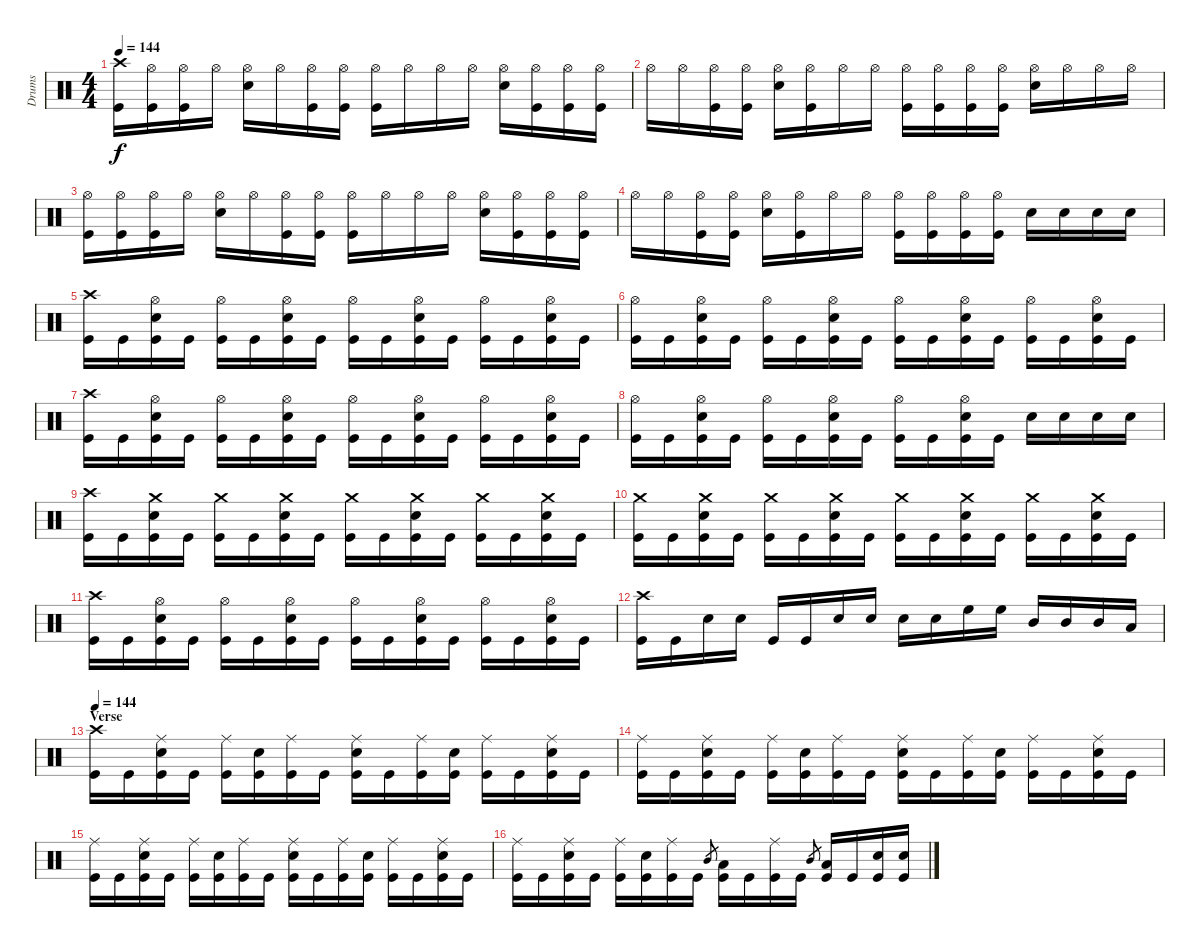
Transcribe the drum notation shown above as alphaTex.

\track ("Drums" "Drums") {instrument percussion}
\staff {score}
\articulation defaults
\ts (4 4)
\tempo 144
\clef neutral
\ks c
("Crash high (hit)" "Kick (hit)").16{dy f} ("Hi-Hat (open)" "Kick (hit)").16 ("Hi-Hat (open)" "Kick (hit)").16 "Hi-Hat (open)".16 ("Hi-Hat (open)" "Electric Snare (hit)").16 "Hi-Hat (open)".16 ("Hi-Hat (open)" "Kick (hit)").16 ("Hi-Hat (open)" "Kick (hit)").16 ("Hi-Hat (open)" "Kick (hit)").16 "Hi-Hat (open)".16 "Hi-Hat (open)".16 "Hi-Hat (open)".16 ("Hi-Hat (open)" "Electric Snare (hit)").16 ("Hi-Hat (open)" "Kick (hit)").16 ("Hi-Hat (open)" "Kick (hit)").16 ("Hi-Hat (open)" "Kick (hit)").16 |
"Hi-Hat (open)".16 "Hi-Hat (open)".16 ("Hi-Hat (open)" "Kick (hit)").16 ("Hi-Hat (open)" "Kick (hit)").16 ("Hi-Hat (open)" "Electric Snare (hit)").16 ("Hi-Hat (open)" "Kick (hit)").16 "Hi-Hat (open)".16 "Hi-Hat (open)".16 ("Hi-Hat (open)" "Kick (hit)").16 ("Hi-Hat (open)" "Kick (hit)").16 ("Hi-Hat (open)" "Kick (hit)").16 ("Hi-Hat (open)" "Kick (hit)").16 ("Hi-Hat (open)" "Electric Snare (hit)").16 "Hi-Hat (open)".16 "Hi-Hat (open)".16 "Hi-Hat (open)".16 |
("Hi-Hat (open)" "Kick (hit)").16 ("Hi-Hat (open)" "Kick (hit)").16 ("Hi-Hat (open)" "Kick (hit)").16 "Hi-Hat (open)".16 ("Hi-Hat (open)" "Electric Snare (hit)").16 "Hi-Hat (open)".16 ("Hi-Hat (open)" "Kick (hit)").16 ("Hi-Hat (open)" "Kick (hit)").16 ("Hi-Hat (open)" "Kick (hit)").16 "Hi-Hat (open)".16 "Hi-Hat (open)".16 "Hi-Hat (open)".16 ("Hi-Hat (open)" "Electric Snare (hit)").16 ("Hi-Hat (open)" "Kick (hit)").16 ("Hi-Hat (open)" "Kick (hit)").16 ("Hi-Hat (open)" "Kick (hit)").16 |
"Hi-Hat (open)".16 "Hi-Hat (open)".16 ("Hi-Hat (open)" "Kick (hit)").16 ("Hi-Hat (open)" "Kick (hit)").16 ("Hi-Hat (open)" "Electric Snare (hit)").16 ("Hi-Hat (open)" "Kick (hit)").16 "Hi-Hat (open)".16 "Hi-Hat (open)".16 ("Hi-Hat (open)" "Kick (hit)").16 ("Hi-Hat (open)" "Kick (hit)").16 ("Hi-Hat (open)" "Kick (hit)").16 ("Hi-Hat (open)" "Kick (hit)").16 "Electric Snare (hit)".16 "Electric Snare (hit)".16 "Electric Snare (hit)".16 "Electric Snare (hit)".16 |
("Crash high (hit)" "Kick (hit)").16 "Kick (hit)".16 ("Hi-Hat (open)" "Electric Snare (hit)" "Kick (hit)").16 "Kick (hit)".16 ("Hi-Hat (open)" "Kick (hit)").16 "Kick (hit)".16 ("Hi-Hat (open)" "Electric Snare (hit)" "Kick (hit)").16 "Kick (hit)".16 ("Hi-Hat (open)" "Kick (hit)").16 "Kick (hit)".16 ("Hi-Hat (open)" "Electric Snare (hit)" "Kick (hit)").16 "Kick (hit)".16 ("Hi-Hat (open)" "Kick (hit)").16 "Kick (hit)".16 ("Hi-Hat (open)" "Electric Snare (hit)" "Kick (hit)").16 "Kick (hit)".16 |
("Hi-Hat (open)" "Kick (hit)").16 "Kick (hit)".16 ("Hi-Hat (open)" "Electric Snare (hit)" "Kick (hit)").16 "Kick (hit)".16 ("Hi-Hat (open)" "Kick (hit)").16 "Kick (hit)".16 ("Hi-Hat (open)" "Electric Snare (hit)" "Kick (hit)").16 "Kick (hit)".16 ("Hi-Hat (open)" "Kick (hit)").16 "Kick (hit)".16 ("Hi-Hat (open)" "Electric Snare (hit)" "Kick (hit)").16 "Kick (hit)".16 ("Hi-Hat (open)" "Kick (hit)").16 "Kick (hit)".16 ("Hi-Hat (open)" "Electric Snare (hit)" "Kick (hit)").16 "Kick (hit)".16 |
("Crash high (hit)" "Kick (hit)").16 "Kick (hit)".16 ("Hi-Hat (open)" "Electric Snare (hit)" "Kick (hit)").16 "Kick (hit)".16 ("Hi-Hat (open)" "Kick (hit)").16 "Kick (hit)".16 ("Hi-Hat (open)" "Electric Snare (hit)" "Kick (hit)").16 "Kick (hit)".16 ("Hi-Hat (open)" "Kick (hit)").16 "Kick (hit)".16 ("Hi-Hat (open)" "Electric Snare (hit)" "Kick (hit)").16 "Kick (hit)".16 ("Hi-Hat (open)" "Kick (hit)").16 "Kick (hit)".16 ("Hi-Hat (open)" "Electric Snare (hit)" "Kick (hit)").16 "Kick (hit)".16 |
("Hi-Hat (open)" "Kick (hit)").16 "Kick (hit)".16 ("Hi-Hat (open)" "Electric Snare (hit)" "Kick (hit)").16 "Kick (hit)".16 ("Hi-Hat (open)" "Kick (hit)").16 "Kick (hit)".16 ("Hi-Hat (open)" "Electric Snare (hit)" "Kick (hit)").16 "Kick (hit)".16 ("Hi-Hat (open)" "Kick (hit)").16 "Kick (hit)".16 ("Hi-Hat (open)" "Electric Snare (hit)" "Kick (hit)").16 "Kick (hit)".16 "Electric Snare (hit)".16 "Electric Snare (hit)".16 "Electric Snare (hit)".16 "Electric Snare (hit)".16 |
("Crash high (hit)" "Kick (hit)").16 "Kick (hit)".16 ("Crash medium (hit)" "Electric Snare (hit)" "Kick (hit)").16 "Kick (hit)".16 ("Crash medium (hit)" "Kick (hit)").16 "Kick (hit)".16 ("Crash medium (hit)" "Electric Snare (hit)" "Kick (hit)").16 "Kick (hit)".16 ("Crash medium (hit)" "Kick (hit)").16 "Kick (hit)".16 ("Crash medium (hit)" "Electric Snare (hit)" "Kick (hit)").16 "Kick (hit)".16 ("Crash medium (hit)" "Kick (hit)").16 "Kick (hit)".16 ("Crash medium (hit)" "Electric Snare (hit)" "Kick (hit)").16 "Kick (hit)".16 |
("Crash medium (hit)" "Kick (hit)").16 "Kick (hit)".16 ("Crash medium (hit)" "Electric Snare (hit)" "Kick (hit)").16 "Kick (hit)".16 ("Crash medium (hit)" "Kick (hit)").16 "Kick (hit)".16 ("Crash medium (hit)" "Electric Snare (hit)" "Kick (hit)").16 "Kick (hit)".16 ("Crash medium (hit)" "Kick (hit)").16 "Kick (hit)".16 ("Crash medium (hit)" "Electric Snare (hit)" "Kick (hit)").16 "Kick (hit)".16 ("Crash medium (hit)" "Kick (hit)").16 "Kick (hit)".16 ("Crash medium (hit)" "Electric Snare (hit)" "Kick (hit)").16 "Kick (hit)".16 |
("Crash high (hit)" "Kick (hit)").16 "Kick (hit)".16 ("Hi-Hat (open)" "Electric Snare (hit)" "Kick (hit)").16 "Kick (hit)".16 ("Hi-Hat (open)" "Kick (hit)").16 "Kick (hit)".16 ("Hi-Hat (open)" "Electric Snare (hit)" "Kick (hit)").16 "Kick (hit)".16 ("Hi-Hat (open)" "Kick (hit)").16 "Kick (hit)".16 ("Hi-Hat (open)" "Electric Snare (hit)" "Kick (hit)").16 "Kick (hit)".16 ("Hi-Hat (open)" "Kick (hit)").16 "Kick (hit)".16 ("Hi-Hat (open)" "Electric Snare (hit)" "Kick (hit)").16 "Kick (hit)".16 |
("Crash high (hit)" "Kick (hit)").16 "Kick (hit)".16 "Electric Snare (hit)".16 "Electric Snare (hit)".16 "Kick (hit)".16 "Kick (hit)".16 "Electric Snare (hit)".16 "Electric Snare (hit)".16 "Electric Snare (hit)".16 "Electric Snare (hit)".16 "High Floor Tom (hit)".16 "High Floor Tom (hit)".16 "Mid Tom (hit)".16 "Mid Tom (hit)".16 "Mid Tom (hit)".16 "Low Tom (hit)".16 |
\section ("" "Verse")
\tempo 144
("Crash high (hit)" "Kick (hit)").16 "Kick (hit)".16 ("Ride (middle)" "Electric Snare (hit)" "Kick (hit)").16 "Kick (hit)".16 ("Ride (middle)" "Kick (hit)").16 ("Electric Snare (hit)" "Kick (hit)").16 ("Ride (middle)" "Kick (hit)").16 "Kick (hit)".16 ("Ride (middle)" "Electric Snare (hit)" "Kick (hit)").16 "Kick (hit)".16 ("Ride (middle)" "Kick (hit)").16 ("Electric Snare (hit)" "Kick (hit)").16 ("Ride (middle)" "Kick (hit)").16 "Kick (hit)".16 ("Ride (middle)" "Electric Snare (hit)" "Kick (hit)").16 "Kick (hit)".16 |
("Ride (middle)" "Kick (hit)").16 "Kick (hit)".16 ("Ride (middle)" "Electric Snare (hit)" "Kick (hit)").16 "Kick (hit)".16 ("Ride (middle)" "Kick (hit)").16 ("Electric Snare (hit)" "Kick (hit)").16 ("Ride (middle)" "Kick (hit)").16 "Kick (hit)".16 ("Ride (middle)" "Electric Snare (hit)" "Kick (hit)").16 "Kick (hit)".16 ("Ride (middle)" "Kick (hit)").16 ("Electric Snare (hit)" "Kick (hit)").16 ("Ride (middle)" "Kick (hit)").16 "Kick (hit)".16 ("Ride (middle)" "Electric Snare (hit)" "Kick (hit)").16 "Kick (hit)".16 |
("Ride (middle)" "Kick (hit)").16 "Kick (hit)".16 ("Ride (middle)" "Electric Snare (hit)" "Kick (hit)").16 "Kick (hit)".16 ("Ride (middle)" "Kick (hit)").16 ("Electric Snare (hit)" "Kick (hit)").16 ("Ride (middle)" "Kick (hit)").16 "Kick (hit)".16 ("Ride (middle)" "Electric Snare (hit)" "Kick (hit)").16 "Kick (hit)".16 ("Ride (middle)" "Kick (hit)").16 ("Electric Snare (hit)" "Kick (hit)").16 ("Ride (middle)" "Kick (hit)").16 "Kick (hit)".16 ("Ride (middle)" "Electric Snare (hit)" "Kick (hit)").16 "Kick (hit)".16 |
("Ride (middle)" "Kick (hit)").16 "Kick (hit)".16 ("Ride (middle)" "Electric Snare (hit)" "Kick (hit)").16 "Kick (hit)".16 ("Ride (middle)" "Kick (hit)").16 ("Electric Snare (hit)" "Kick (hit)").16 ("Ride (middle)" "Kick (hit)").16 "Kick (hit)".16 "Mid Tom (hit)".8{gr} ("Low Tom (hit)" "Kick (hit)").16 "Kick (hit)".16 ("Ride (middle)" "Kick (hit)").16 "Kick (hit)".16 "Mid Tom (hit)".8{gr} ("Low Tom (hit)" "Kick (hit)").16 "Kick (hit)".16 ("Electric Snare (hit)" "Kick (hit)").16 ("Electric Snare (hit)" "Kick (hit)").16
